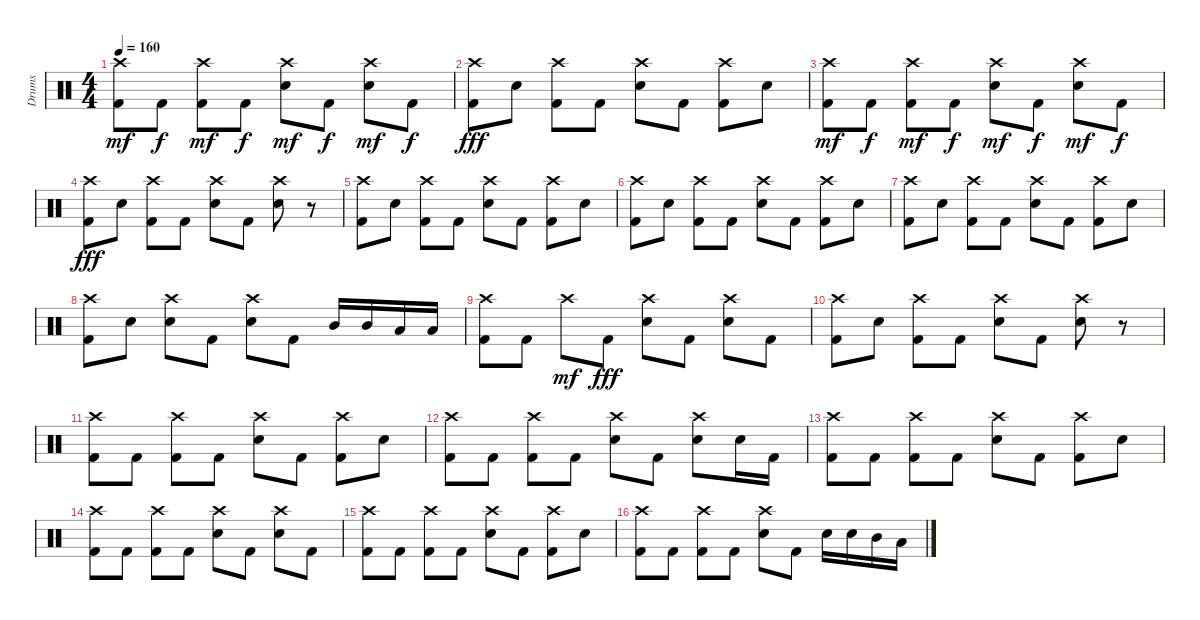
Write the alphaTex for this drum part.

\track ("Drums" "Drums") {instrument percussion}
\staff {score}
\articulation defaults
\ts (4 4)
\tempo 160
\clef neutral
\ks c
("Crash high (hit)" "Kick (hit) 2").8{dy mf} "Kick (hit) 2".8{dy f} ("Crash high (hit)" "Kick (hit) 2").8{dy mf} "Kick (hit) 2".8{dy f} ("Crash high (hit)" "Snare (hit) 2").8{dy mf} "Kick (hit) 2".8{dy f} ("Crash high (hit)" "Snare (hit) 2").8{dy mf} "Kick (hit) 2".8{dy f} |
("Crash high (hit)" "Kick (hit) 2").8{dy fff} "Snare (hit) 2".8 ("Crash high (hit)" "Kick (hit) 2").8 "Kick (hit) 2".8 ("Crash high (hit)" "Snare (hit) 2").8 "Kick (hit) 2".8 ("Crash high (hit)" "Kick (hit) 2").8 "Snare (hit) 2".8 |
("Crash high (hit)" "Kick (hit) 2").8{dy mf} "Kick (hit) 2".8{dy f} ("Crash high (hit)" "Kick (hit) 2").8{dy mf} "Kick (hit) 2".8{dy f} ("Crash high (hit)" "Snare (hit) 2").8{dy mf} "Kick (hit) 2".8{dy f} ("Crash high (hit)" "Snare (hit) 2").8{dy mf} "Kick (hit) 2".8{dy f} |
("Crash high (hit)" "Kick (hit) 2").8{dy fff} "Snare (hit) 2".8 ("Crash high (hit)" "Kick (hit) 2").8 "Kick (hit) 2".8 ("Crash high (hit)" "Snare (hit) 2").8 "Kick (hit) 2".8 ("Crash high (hit)" "Snare (hit) 2").8 r.8 |
("Crash high (hit)" "Kick (hit) 2").8 "Snare (hit) 2".8 ("Crash high (hit)" "Kick (hit) 2").8 "Kick (hit) 2".8 ("Crash high (hit)" "Snare (hit) 2").8 "Kick (hit) 2".8 ("Crash high (hit)" "Kick (hit) 2").8 "Snare (hit) 2".8 |
("Crash high (hit)" "Kick (hit) 2").8 "Snare (hit) 2".8 ("Crash high (hit)" "Kick (hit) 2").8 "Kick (hit) 2".8 ("Crash high (hit)" "Snare (hit) 2").8 "Kick (hit) 2".8 ("Crash high (hit)" "Kick (hit) 2").8 "Snare (hit) 2".8 |
("Crash high (hit)" "Kick (hit) 2").8 "Snare (hit) 2".8 ("Crash high (hit)" "Kick (hit) 2").8 "Kick (hit) 2".8 ("Crash high (hit)" "Snare (hit) 2").8 "Kick (hit) 2".8 ("Crash high (hit)" "Kick (hit) 2").8 "Snare (hit) 2".8 |
("Crash high (hit)" "Kick (hit) 2").8 "Snare (hit) 2".8 ("Crash high (hit)" "Snare (hit) 2").8 "Kick (hit) 2".8 ("Crash high (hit)" "Snare (hit) 2").8 "Kick (hit) 2".8 "Mid Tom (hit)".16 "Mid Tom (hit)".16 "Low Floor Tom (hit)".16 "Low Floor Tom (hit)".16 |
("Crash high (hit)" "Kick (hit) 2").8 "Kick (hit) 2".8 "Crash high (hit)".8{dy mf} "Kick (hit) 2".8{dy fff} ("Crash high (hit)" "Snare (hit) 2").8 "Kick (hit) 2".8 ("Crash high (hit)" "Snare (hit) 2").8 "Kick (hit) 2".8 |
("Crash high (hit)" "Kick (hit) 2").8 "Snare (hit) 2".8 ("Crash high (hit)" "Kick (hit) 2").8 "Kick (hit) 2".8 ("Crash high (hit)" "Snare (hit) 2").8 "Kick (hit) 2".8 ("Crash high (hit)" "Snare (hit) 2").8 r.8 |
("Crash high (hit)" "Kick (hit) 2").8 "Kick (hit) 2".8 ("Crash high (hit)" "Kick (hit) 2").8 "Kick (hit) 2".8 ("Crash high (hit)" "Snare (hit) 2").8 "Kick (hit) 2".8 ("Crash high (hit)" "Kick (hit) 2").8 "Snare (hit) 2".8 |
("Crash high (hit)" "Kick (hit) 2").8 "Kick (hit) 2".8 ("Crash high (hit)" "Kick (hit) 2").8 "Kick (hit) 2".8 ("Crash high (hit)" "Snare (hit) 2").8 "Kick (hit) 2".8 ("Crash high (hit)" "Snare (hit) 2").8 "Snare (hit) 2".16 "Kick (hit) 2".16 |
("Crash high (hit)" "Kick (hit) 2").8 "Kick (hit) 2".8 ("Crash high (hit)" "Kick (hit) 2").8 "Kick (hit) 2".8 ("Crash high (hit)" "Snare (hit) 2").8 "Kick (hit) 2".8 ("Crash high (hit)" "Kick (hit) 2").8 "Snare (hit) 2".8 |
("Crash high (hit)" "Kick (hit) 2").8 "Kick (hit) 2".8 ("Crash high (hit)" "Kick (hit) 2").8 "Kick (hit) 2".8 ("Crash high (hit)" "Snare (hit) 2").8 "Kick (hit) 2".8 ("Crash high (hit)" "Snare (hit) 2").8 "Kick (hit) 2".8 |
("Crash high (hit)" "Kick (hit) 2").8 "Kick (hit) 2".8 ("Crash high (hit)" "Kick (hit) 2").8 "Kick (hit) 2".8 ("Crash high (hit)" "Snare (hit) 2").8 "Kick (hit) 2".8 ("Crash high (hit)" "Kick (hit) 2").8 "Snare (hit) 2".8 |
("Crash high (hit)" "Kick (hit) 2").8 "Kick (hit) 2".8 ("Crash high (hit)" "Kick (hit) 2").8 "Kick (hit) 2".8 ("Crash high (hit)" "Snare (hit) 2").8 "Kick (hit) 2".8 "Snare (hit) 2".16 "Snare (hit) 2".16 "Mid Tom (hit)".16 "Low Floor Tom (hit)".16
